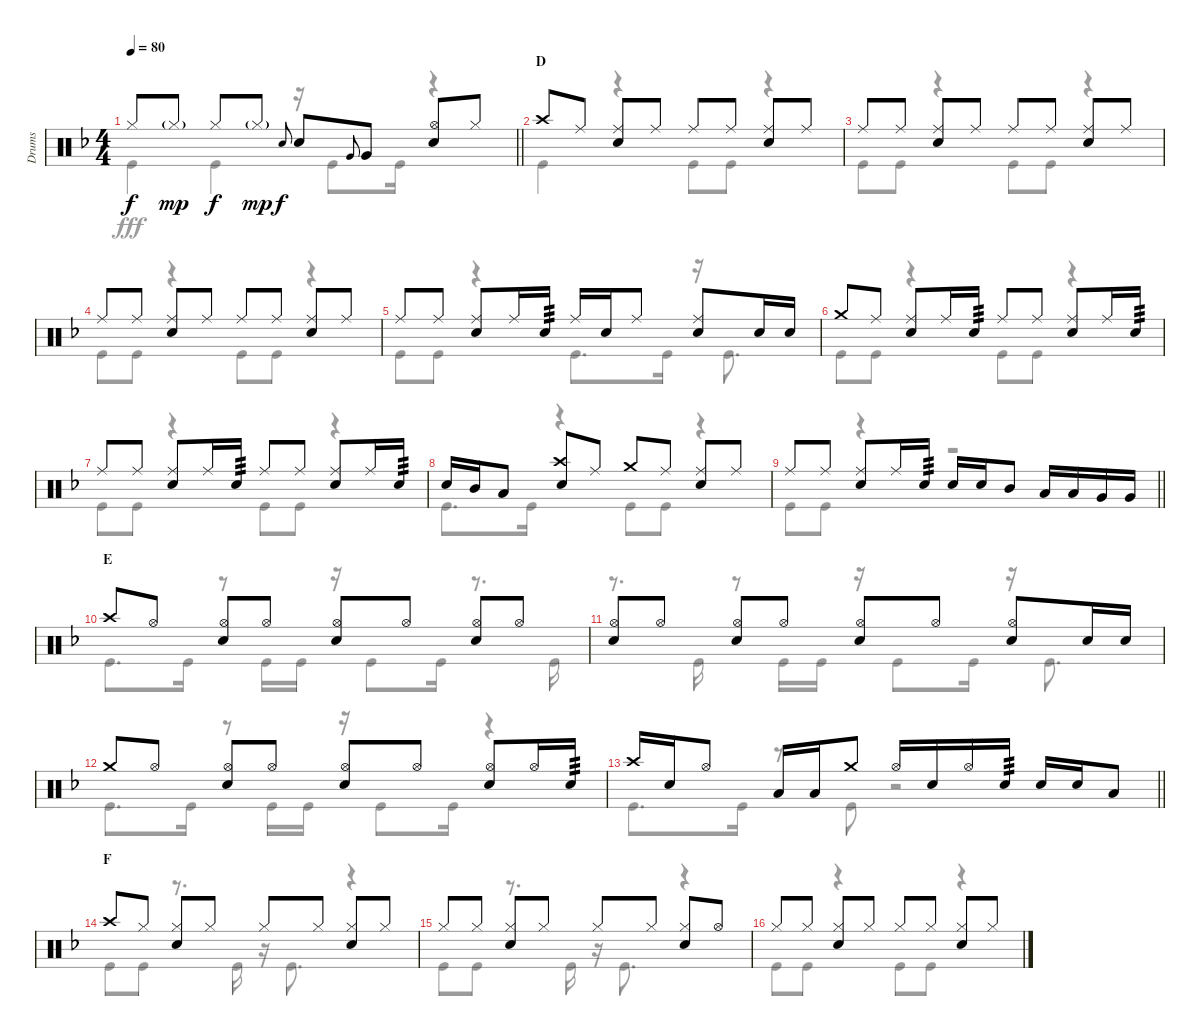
\track ("Drums" "Drums") {instrument percussion}
\staff {score}
\articulation defaults
\voice
\ts (4 4)
\tempo 80
\clef neutral
\barLineRight lightlight
\ks f "Hi-Hat (closed)".8{dy f} "Hi-Hat (closed)"{g}.8{dy mp} "Hi-Hat (closed)".8{dy f} "Hi-Hat (closed)"{g}.8{dy mp} "Snare (hit) 2".8{gr onbeat dy f} "Snare (hit) 2".8 "Very Low Tom (hit)".8{gr onbeat} "Very Low Tom (hit)".8
("Hi-Hat (open)" "Snare (hit) 2").8 "Hi-Hat (closed)".8 |
\section ("" "D")
"Crash high (hit)".8 "Ride (middle)".8 ("Ride (middle)" "Snare (hit) 2").8 "Ride (middle)".8 "Ride (middle)".8 "Ride (middle)".8 ("Ride (middle)" "Snare (hit) 2").8 "Ride (middle)".8 |
"Ride (middle)".8 "Ride (middle)".8 ("Ride (middle)" "Snare (hit) 2").8 "Ride (middle)".8 "Ride (middle)".8 "Ride (middle)".8 ("Ride (middle)" "Snare (hit) 2").8 "Ride (middle)".8 |
"Ride (middle)".8 "Ride (middle)".8 ("Ride (middle)" "Snare (hit) 2").8 "Ride (middle)".8 "Ride (middle)".8 "Ride (middle)".8 ("Ride (middle)" "Snare (hit) 2").8 "Ride (middle)".8 |
"Ride (middle)".8 "Ride (middle)".8 ("Ride (middle)" "Snare (hit) 2").8 "Ride (middle)".16 "Snare (hit) 2".16{tp 3} "Ride (middle)".16 "Snare (hit) 2".16 "Ride (middle)".8 ("Ride (middle)" "Snare (hit) 2").8 "Snare (hit) 2".16 "Snare (hit) 2".16 |
"Crash medium (hit)".8 "Ride (middle)".8 ("Ride (middle)" "Snare (hit) 2").8 "Ride (middle)".16 "Snare (hit) 2".16{tp 3} "Ride (middle)".8 "Ride (middle)".8 ("Ride (middle)" "Snare (hit) 2").8 "Ride (middle)".16 "Snare (hit) 2".16{tp 3} |
"Ride (middle)".8 "Ride (middle)".8 ("Ride (middle)" "Snare (hit) 2").8 "Ride (middle)".16 "Snare (hit) 2".16{tp 3} "Ride (middle)".8 "Ride (middle)".8 ("Ride (middle)" "Snare (hit) 2").8 "Ride (middle)".16 "Snare (hit) 2".16{tp 3} |
"Snare (hit) 2".16 "Mid Tom (hit)".16 "Low Tom (hit)".8 ("Crash high (hit)" "Snare (hit) 2").8 "Ride (middle)".8 "Crash medium (hit)".8 "Ride (middle)".8 ("Ride (middle)" "Snare (hit) 2").8 "Ride (middle)".8 |
\barLineRight lightlight "Ride (middle)".8 "Ride (middle)".8
("Ride (middle)" "Snare (hit) 2").8 "Ride (middle)".16 "Snare (hit) 2".16{tp 3} "Snare (hit) 2".16 "Snare (hit) 2".16 "Mid Tom (hit)".8 "Low Tom (hit)".16 "Low Tom (hit)".16 "Very Low Tom (hit)".16 "Very Low Tom (hit)".16 |
\section ("" "E")
"Crash high (hit)".8 "Hi-Hat (open)".8 ("Hi-Hat (open)" "Snare (hit) 2").8 "Hi-Hat (open)".8 ("Hi-Hat (open)" "Snare (hit) 2").8 "Hi-Hat (open)".8 ("Hi-Hat (open)" "Snare (hit) 2").8 "Hi-Hat (open)".8 |
("Hi-Hat (open)" "Snare (hit) 2").8 "Hi-Hat (open)".8 ("Hi-Hat (open)" "Snare (hit) 2").8 "Hi-Hat (open)".8 ("Hi-Hat (open)" "Snare (hit) 2").8 "Hi-Hat (open)".8 ("Hi-Hat (open)" "Snare (hit) 2").8 "Snare (hit) 2".16 "Snare (hit) 2".16 |
"Crash medium (hit)".8 "Hi-Hat (open)".8 ("Hi-Hat (open)" "Snare (hit) 2").8 "Hi-Hat (open)".8 ("Hi-Hat (open)" "Snare (hit) 2").8 "Hi-Hat (open)".8 ("Hi-Hat (open)" "Snare (hit) 2").8 "Hi-Hat (open)".16 "Snare (hit) 2".16{tp 3} |
\barLineRight lightlight "Crash high (hit)".16 "Snare (hit) 2".16 "Hi-Hat (open)".8 "Low Tom (hit)".16 "Low Tom (hit)".16 "Crash medium (hit)".8 "Hi-Hat (open)".16 "Snare (hit) 2".16 "Hi-Hat (open)".16 "Snare (hit) 2".16{tp 3} "Snare (hit) 2".16 "Snare (hit) 2".16 "Low Tom (hit)".8
|
\section ("" "F")
"Crash high (hit)".8 "Hi-Hat (closed)".8 ("Hi-Hat (closed)" "Snare (hit) 2").8 "Hi-Hat (closed)".8 "Hi-Hat (closed)".8 "Hi-Hat (closed)".8 ("Hi-Hat (closed)" "Snare (hit) 2").8 "Hi-Hat (closed)".8 |
"Hi-Hat (closed)".8 "Hi-Hat (closed)".8 ("Hi-Hat (closed)" "Snare (hit) 2").8 "Hi-Hat (closed)".8 "Hi-Hat (closed)".8 "Hi-Hat (closed)".8 ("Hi-Hat (closed)" "Snare (hit) 2").8 "Hi-Hat (open)".8 |
"Hi-Hat (closed)".8 "Hi-Hat (closed)".8 ("Hi-Hat (closed)" "Snare (hit) 2").8 "Hi-Hat (closed)".8 "Hi-Hat (closed)".8 "Hi-Hat (closed)".8 ("Hi-Hat (closed)" "Snare (hit) 2").8 "Hi-Hat (closed)".8
\voice
\clef neutral
\ottava regular
\simile none
\barLineRight lightlight
\ks f "Kick (hit)".4{dy fff} "Kick (hit)".4
r.16 "Kick (hit)".8 "Kick (hit)".16 r.4 |
"Kick (hit)".4 r.4 "Kick (hit)".8 "Kick (hit)".8 r.4 |
"Kick (hit)".8 "Kick (hit)".8 r.4 "Kick (hit)".8 "Kick (hit)".8 r.4 |
"Kick (hit)".8 "Kick (hit)".8 r.4 "Kick (hit)".8 "Kick (hit)".8 r.4 |
"Kick (hit)".8 "Kick (hit)".8 r.4 "Kick (hit)".8{d} "Kick (hit)".16 r.16 "Kick (hit)".8{d} |
"Kick (hit)".8 "Kick (hit)".8 r.4 "Kick (hit)".8 "Kick (hit)".8 r.4 |
"Kick (hit)".8 "Kick (hit)".8 r.4 "Kick (hit)".8 "Kick (hit)".8 r.4 |
"Kick (hit)".8{d} "Kick (hit)".16 r.4 "Kick (hit)".8 "Kick (hit)".8 r.4 |
\barLineRight lightlight "Kick (hit)".8 "Kick (hit)".8
r.4 r.2 |
"Kick (hit)".8{d} "Kick (hit)".16 r.8 "Kick (hit)".16 "Kick (hit)".16 r.16 "Kick (hit)".8 "Kick (hit)".16 r.8{d} "Kick (hit)".16 |
r.8{d} "Kick (hit)".16 r.8 "Kick (hit)".16 "Kick (hit)".16 r.16 "Kick (hit)".8 "Kick (hit)".16 r.16 "Kick (hit)".8{d} |
"Kick (hit)".8{d} "Kick (hit)".16 r.8 "Kick (hit)".16 "Kick (hit)".16 r.16 "Kick (hit)".8 "Kick (hit)".16 r.4 |
\barLineRight lightlight "Kick (hit)".8{d} "Kick (hit)".16
r.8 "Kick (hit)".8 r.2 |
"Kick (hit)".8 "Kick (hit)".8 r.8{d} "Kick (hit)".16 r.16 "Kick (hit)".8{d} r.4 |
"Kick (hit)".8 "Kick (hit)".8 r.8{d} "Kick (hit)".16 r.16 "Kick (hit)".8{d} r.4 |
"Kick (hit)".8 "Kick (hit)".8 r.4 "Kick (hit)".8 "Kick (hit)".8 r.4
